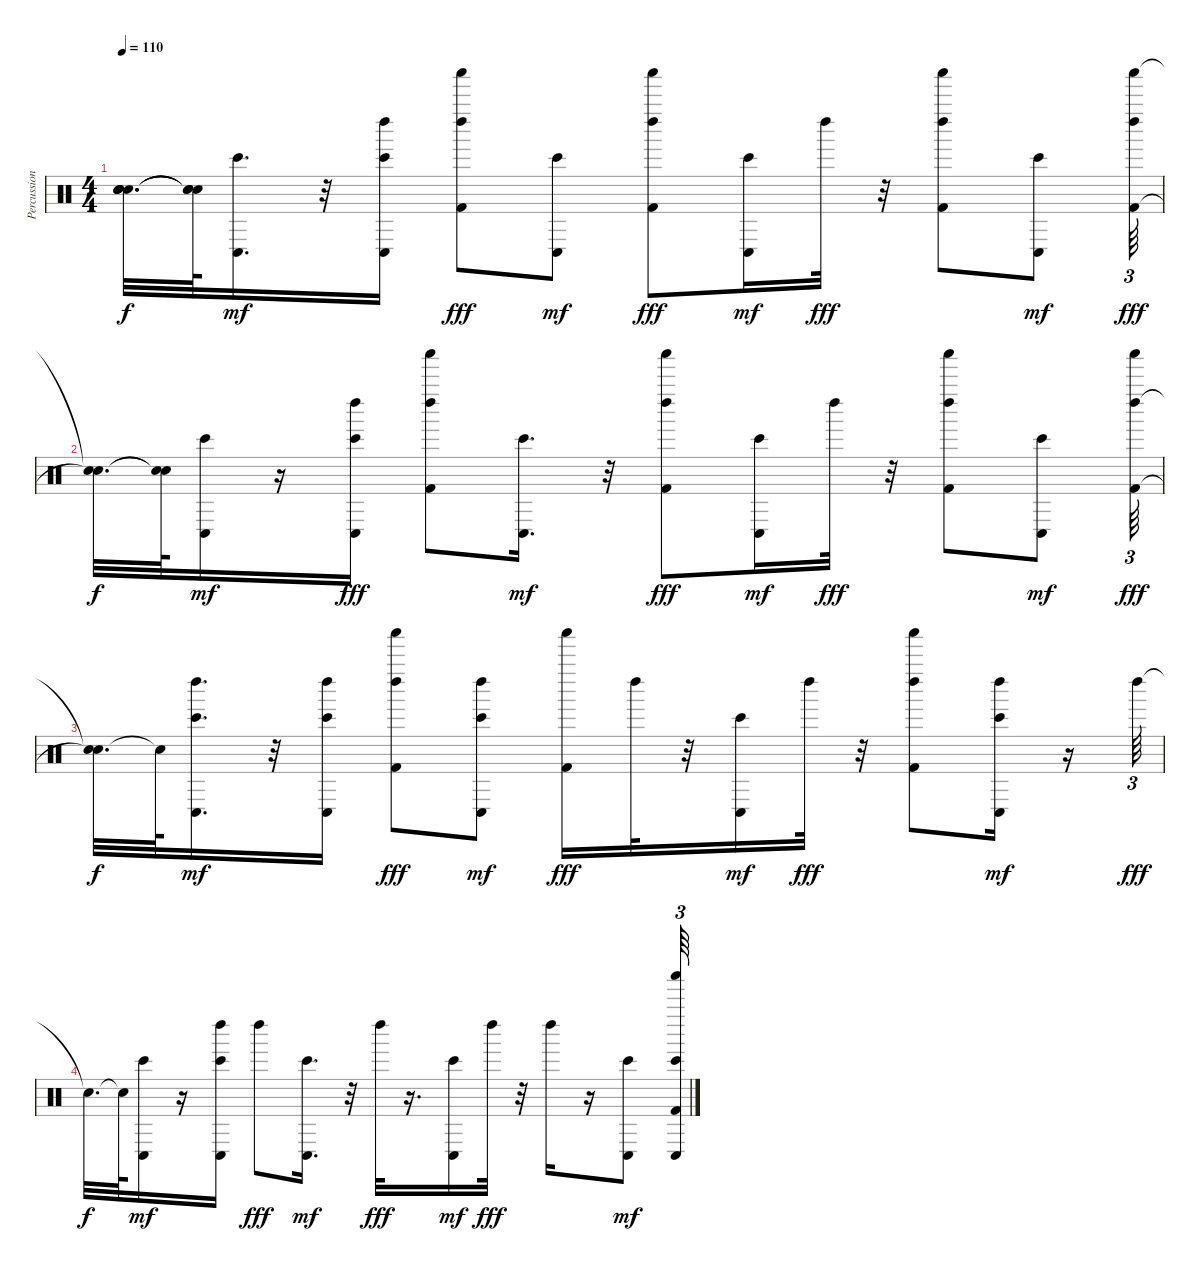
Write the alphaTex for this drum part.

\track ("Percussion" "Percussion") {instrument percussion}
\staff {score}
\articulation defaults
\ts (4 4)
\tempo 110
\clef neutral
\ks c
("Snare (hit)"{t} "Snare (hit)"{t} "Snare (hit)"{t} "Snare (hit)"{t}).32{d dy f} ("Snare (hit)"{t} "Snare (hit)"{t} "Snare (hit)"{t}).64 ("Conga low (hit)" "Bongo High (hit)").16{d dy mf} r.32 ("Left Maraca (hit)" "Conga low (hit)" "Bongo High (hit)").16 ("Left Maraca (hit)" "Shaker (hit)" "Kick (hit) 2").8{dy fff} ("Conga low (hit)" "Bongo High (hit)").8{dy mf} ("Shaker (hit)" "Left Maraca (hit)" "Kick (hit) 2").8{dy fff} ("Bongo High (hit)" "Conga low (hit)").16{dy mf} "Left Maraca (hit)".32{dy fff} r.32 ("Shaker (hit)" "Kick (hit) 2" "Left Maraca (hit)").8 ("Bongo High (hit)" "Conga low (hit)").8{dy mf} ("Kick (hit) 2" "Shaker (hit)" "Left Maraca (hit)").64{tu (3 2) dy fff} |
("Snare (hit)"{t} "Snare (hit)"{t}).32{d dy f} ("Snare (hit)"{t} "Snare (hit)"{t}).64 ("Conga low (hit)" "Bongo High (hit)").16{dy mf} r.16 ("Bongo High (hit)" "Conga low (hit)" "Left Maraca (hit)").16{dy fff} ("Shaker (hit)" "Kick (hit) 2" "Left Maraca (hit)").8 ("Bongo High (hit)" "Conga low (hit)").16{d dy mf} r.32 ("Shaker (hit)" "Left Maraca (hit)" "Kick (hit) 2").8{dy fff} ("Bongo High (hit)" "Conga low (hit)").16{dy mf} "Left Maraca (hit)".32{dy fff} r.32 ("Shaker (hit)" "Kick (hit) 2" "Left Maraca (hit)").8 ("Bongo High (hit)" "Conga low (hit)").8{dy mf} ("Kick (hit) 2" "Left Maraca (hit)" "Shaker (hit)").64{tu (3 2) dy fff} |
("Snare (hit)"{t} "Snare (hit)"{t}).32{d dy f} "Snare (hit)"{t}.64 ("Left Maraca (hit)" "Conga low (hit)" "Bongo High (hit)").16{d dy mf} r.32 ("Left Maraca (hit)" "Bongo High (hit)" "Conga low (hit)").16 ("Kick (hit) 2" "Left Maraca (hit)" "Shaker (hit)").8{dy fff} ("Bongo High (hit)" "Left Maraca (hit)" "Conga low (hit)").8{dy mf} ("Shaker (hit)" "Kick (hit) 2").16{dy fff} "Left Maraca (hit)".32 r.32 ("Bongo High (hit)" "Conga low (hit)").16{dy mf} "Left Maraca (hit)".32{dy fff} r.32 ("Kick (hit) 2" "Shaker (hit)" "Left Maraca (hit)").8 ("Bongo High (hit)" "Left Maraca (hit)" "Conga low (hit)").16{dy mf} r.16 "Left Maraca (hit)".64{tu (3 2) dy fff} |
"Snare (hit)"{t}.32{d dy f} "Snare (hit)"{t}.64 ("Conga low (hit)" "Bongo High (hit)").16{dy mf} r.16 ("Conga low (hit)" "Left Maraca (hit)" "Bongo High (hit)").16 "Left Maraca (hit)".8{dy fff} ("Conga low (hit)" "Bongo High (hit)").16{d dy mf} r.32 "Left Maraca (hit)".32{dy fff} r.16{d} ("Bongo High (hit)" "Conga low (hit)").16{dy mf} "Left Maraca (hit)".32{dy fff} r.32 "Left Maraca (hit)".16 r.16 ("Bongo High (hit)" "Conga low (hit)").8{dy mf} ("Kick (hit) 2" "Shaker (hit)" "Conga low (hit)" "Bongo High (hit)").64{tu (3 2)}
